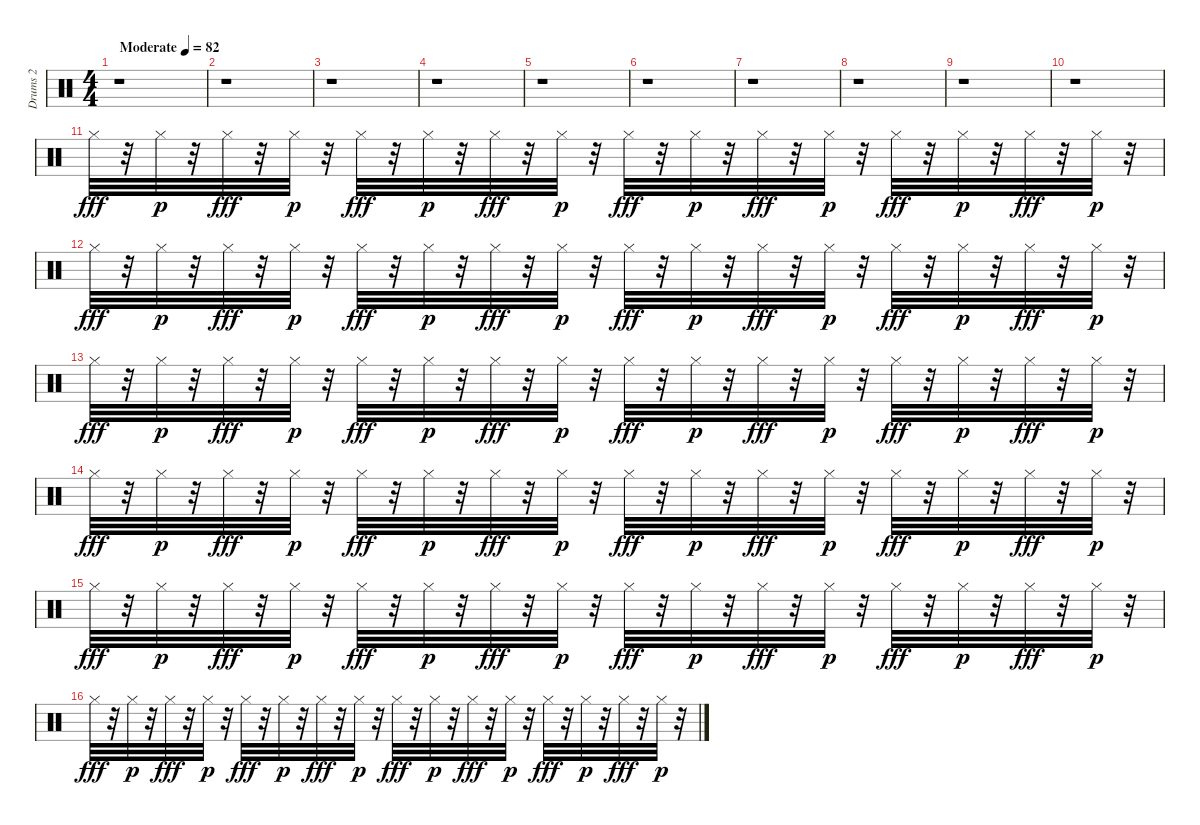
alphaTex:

\track ("Drums 2" "Drums 2") {instrument percussion}
\staff {score}
\articulation defaults
\ts (4 4)
\tempo (82 "Moderate")
\clef neutral
\ks c
r.1{dy fff} |
r.1 |
r.1 |
r.1 |
r.1 |
r.1 |
r.1 |
r.1 |
r.1 |
r.1 |
"Hi-Hat (closed)".32 r.32 "Hi-Hat (closed)".32{dy p} r.32 "Hi-Hat (closed)".32{dy fff} r.32 "Hi-Hat (closed)".32{dy p} r.32 "Hi-Hat (closed)".32{dy fff} r.32 "Hi-Hat (closed)".32{dy p} r.32 "Hi-Hat (closed)".32{dy fff} r.32 "Hi-Hat (closed)".32{dy p} r.32 "Hi-Hat (closed)".32{dy fff} r.32 "Hi-Hat (closed)".32{dy p} r.32 "Hi-Hat (closed)".32{dy fff} r.32 "Hi-Hat (closed)".32{dy p} r.32 "Hi-Hat (closed)".32{dy fff} r.32 "Hi-Hat (closed)".32{dy p} r.32 "Hi-Hat (closed)".32{dy fff} r.32 "Hi-Hat (closed)".32{dy p} r.32 |
"Hi-Hat (closed)".32{dy fff} r.32 "Hi-Hat (closed)".32{dy p} r.32 "Hi-Hat (closed)".32{dy fff} r.32 "Hi-Hat (closed)".32{dy p} r.32 "Hi-Hat (closed)".32{dy fff} r.32 "Hi-Hat (closed)".32{dy p} r.32 "Hi-Hat (closed)".32{dy fff} r.32 "Hi-Hat (closed)".32{dy p} r.32 "Hi-Hat (closed)".32{dy fff} r.32 "Hi-Hat (closed)".32{dy p} r.32 "Hi-Hat (closed)".32{dy fff} r.32 "Hi-Hat (closed)".32{dy p} r.32 "Hi-Hat (closed)".32{dy fff} r.32 "Hi-Hat (closed)".32{dy p} r.32 "Hi-Hat (closed)".32{dy fff} r.32 "Hi-Hat (closed)".32{dy p} r.32 |
"Hi-Hat (closed)".32{dy fff} r.32 "Hi-Hat (closed)".32{dy p} r.32 "Hi-Hat (closed)".32{dy fff} r.32 "Hi-Hat (closed)".32{dy p} r.32 "Hi-Hat (closed)".32{dy fff} r.32 "Hi-Hat (closed)".32{dy p} r.32 "Hi-Hat (closed)".32{dy fff} r.32 "Hi-Hat (closed)".32{dy p} r.32 "Hi-Hat (closed)".32{dy fff} r.32 "Hi-Hat (closed)".32{dy p} r.32 "Hi-Hat (closed)".32{dy fff} r.32 "Hi-Hat (closed)".32{dy p} r.32 "Hi-Hat (closed)".32{dy fff} r.32 "Hi-Hat (closed)".32{dy p} r.32 "Hi-Hat (closed)".32{dy fff} r.32 "Hi-Hat (closed)".32{dy p} r.32 |
"Hi-Hat (closed)".32{dy fff} r.32 "Hi-Hat (closed)".32{dy p} r.32 "Hi-Hat (closed)".32{dy fff} r.32 "Hi-Hat (closed)".32{dy p} r.32 "Hi-Hat (closed)".32{dy fff} r.32 "Hi-Hat (closed)".32{dy p} r.32 "Hi-Hat (closed)".32{dy fff} r.32 "Hi-Hat (closed)".32{dy p} r.32 "Hi-Hat (closed)".32{dy fff} r.32 "Hi-Hat (closed)".32{dy p} r.32 "Hi-Hat (closed)".32{dy fff} r.32 "Hi-Hat (closed)".32{dy p} r.32 "Hi-Hat (closed)".32{dy fff} r.32 "Hi-Hat (closed)".32{dy p} r.32 "Hi-Hat (closed)".32{dy fff} r.32 "Hi-Hat (closed)".32{dy p} r.32 |
"Hi-Hat (closed)".32{dy fff} r.32 "Hi-Hat (closed)".32{dy p} r.32 "Hi-Hat (closed)".32{dy fff} r.32 "Hi-Hat (closed)".32{dy p} r.32 "Hi-Hat (closed)".32{dy fff} r.32 "Hi-Hat (closed)".32{dy p} r.32 "Hi-Hat (closed)".32{dy fff} r.32 "Hi-Hat (closed)".32{dy p} r.32 "Hi-Hat (closed)".32{dy fff} r.32 "Hi-Hat (closed)".32{dy p} r.32 "Hi-Hat (closed)".32{dy fff} r.32 "Hi-Hat (closed)".32{dy p} r.32 "Hi-Hat (closed)".32{dy fff} r.32 "Hi-Hat (closed)".32{dy p} r.32 "Hi-Hat (closed)".32{dy fff} r.32 "Hi-Hat (closed)".32{dy p} r.32 |
"Hi-Hat (closed)".32{dy fff} r.32 "Hi-Hat (closed)".32{dy p} r.32 "Hi-Hat (closed)".32{dy fff} r.32 "Hi-Hat (closed)".32{dy p} r.32 "Hi-Hat (closed)".32{dy fff} r.32 "Hi-Hat (closed)".32{dy p} r.32 "Hi-Hat (closed)".32{dy fff} r.32 "Hi-Hat (closed)".32{dy p} r.32 "Hi-Hat (closed)".32{dy fff} r.32 "Hi-Hat (closed)".32{dy p} r.32 "Hi-Hat (closed)".32{dy fff} r.32 "Hi-Hat (closed)".32{dy p} r.32 "Hi-Hat (closed)".32{dy fff} r.32 "Hi-Hat (closed)".32{dy p} r.32 "Hi-Hat (closed)".32{dy fff} r.32 "Hi-Hat (closed)".32{dy p} r.32
